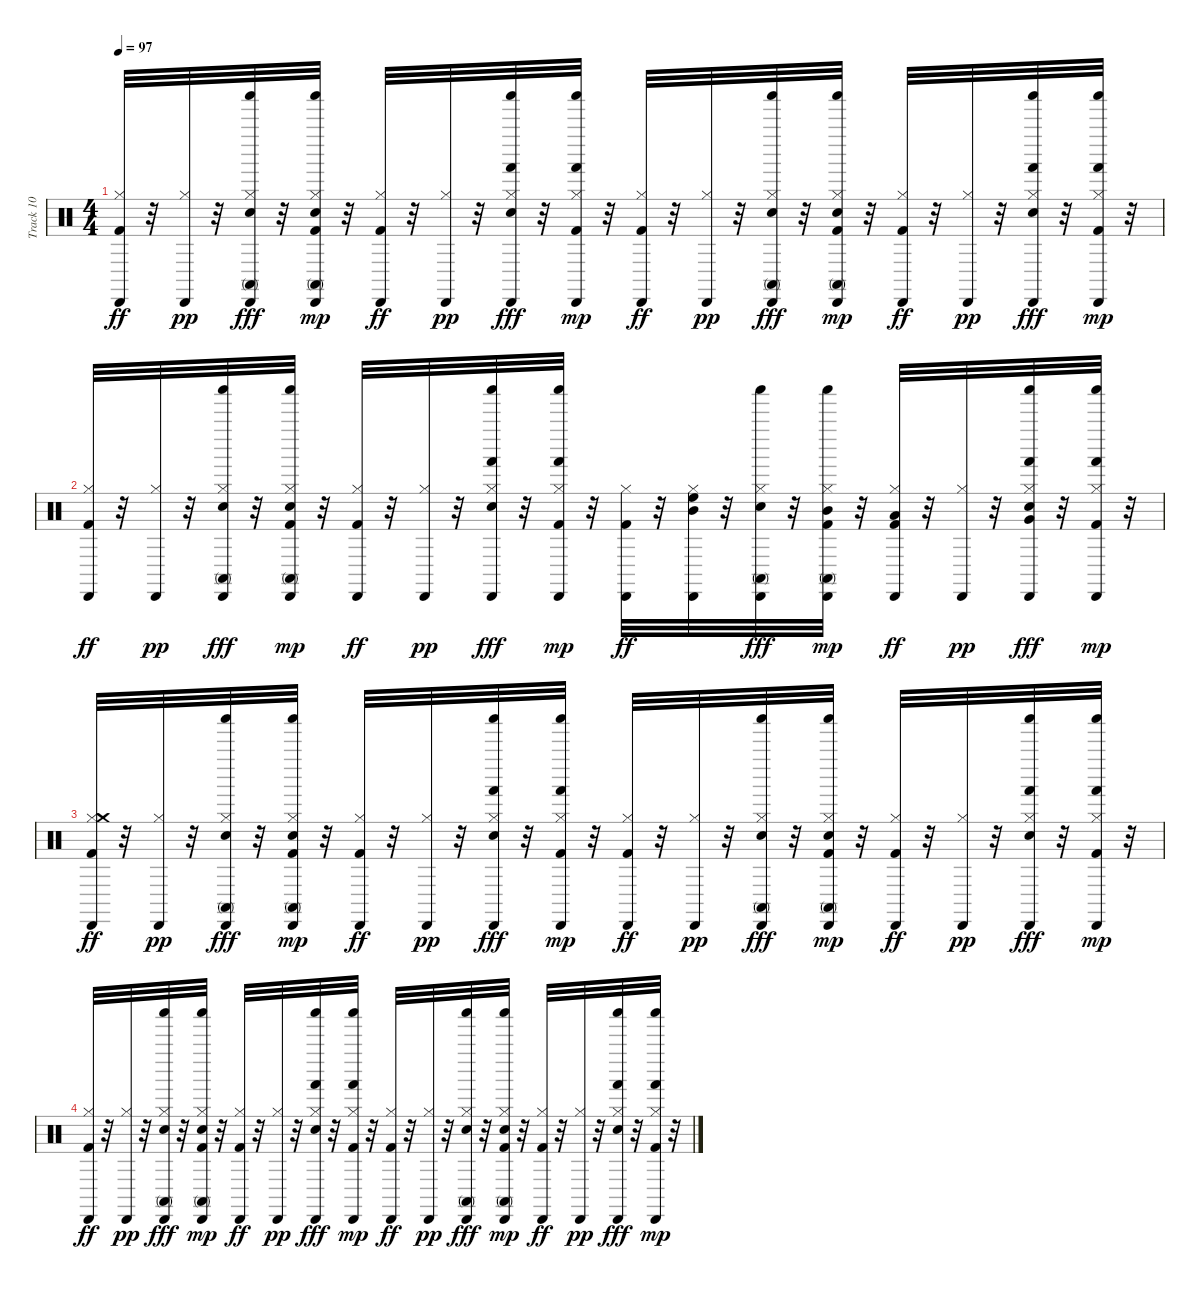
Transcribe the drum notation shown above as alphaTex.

\track ("Track 10" "Track 10") {instrument percussion}
\staff {score}
\articulation defaults
\ts (4 4)
\tempo 97
\clef neutral
\ks c
("Hi-Hat (closed)" "Cabasa (hit)" "Kick (hit) 2").32{dy ff} r.32 ("Hi-Hat (closed)" "Cabasa (hit)").32{dy pp} r.32 ("Hi-Hat (closed)" "Shaker (hit)" "Conga high (mute)" "Cabasa (hit)" "Snare (hit) 2").32{dy fff} r.32 ("Hi-Hat (closed)" "Shaker (hit)" "Conga high (mute)" "Cabasa (hit)" "Snare (hit) 2" "Kick (hit) 2").32{dy mp} r.32 ("Hi-Hat (closed)" "Cabasa (hit)" "Kick (hit) 2").32{dy ff} r.32 ("Hi-Hat (closed)" "Cabasa (hit)").32{dy pp} r.32 ("Hi-Hat (closed)" "Shaker (hit)" "Hand (hit)" "Cabasa (hit)" "Snare (hit) 2").32{dy fff} r.32 ("Hi-Hat (closed)" "Shaker (hit)" "Hand (hit)" "Cabasa (hit)" "Kick (hit) 2").32{dy mp} r.32 ("Hi-Hat (closed)" "Cabasa (hit)" "Kick (hit) 2").32{dy ff} r.32 ("Hi-Hat (closed)" "Cabasa (hit)").32{dy pp} r.32 ("Hi-Hat (closed)" "Shaker (hit)" "Conga high (mute)" "Cabasa (hit)" "Snare (hit) 2").32{dy fff} r.32 ("Hi-Hat (closed)" "Shaker (hit)" "Conga high (mute)" "Cabasa (hit)" "Snare (hit) 2" "Kick (hit) 2").32{dy mp} r.32 ("Hi-Hat (closed)" "Cabasa (hit)" "Kick (hit) 2").32{dy ff} r.32 ("Hi-Hat (closed)" "Cabasa (hit)").32{dy pp} r.32 ("Hi-Hat (closed)" "Shaker (hit)" "Hand (hit)" "Cabasa (hit)" "Snare (hit) 2").32{dy fff} r.32 ("Hi-Hat (closed)" "Shaker (hit)" "Hand (hit)" "Cabasa (hit)" "Kick (hit) 2").32{dy mp} r.32 |
("Hi-Hat (closed)" "Cabasa (hit)" "Kick (hit) 2").32{dy ff} r.32 ("Hi-Hat (closed)" "Cabasa (hit)").32{dy pp} r.32 ("Hi-Hat (closed)" "Shaker (hit)" "Conga high (mute)" "Cabasa (hit)" "Snare (hit) 2").32{dy fff} r.32 ("Hi-Hat (closed)" "Shaker (hit)" "Conga high (mute)" "Cabasa (hit)" "Snare (hit) 2" "Kick (hit) 2").32{dy mp} r.32 ("Hi-Hat (closed)" "Cabasa (hit)" "Kick (hit) 2").32{dy ff} r.32 ("Hi-Hat (closed)" "Cabasa (hit)").32{dy pp} r.32 ("Hi-Hat (closed)" "Shaker (hit)" "Hand (hit)" "Cabasa (hit)" "Snare (hit) 2").32{dy fff} r.32 ("Hi-Hat (closed)" "Shaker (hit)" "Hand (hit)" "Cabasa (hit)" "Kick (hit) 2").32{dy mp} r.32 ("Hi-Hat (closed)" "Cabasa (hit)" "Kick (hit) 2").32{dy ff} r.32 ("Hi-Hat (closed)" "Cabasa (hit)" "Mid Tom (hit)" "High Floor Tom (hit)").32 r.32 ("Hi-Hat (closed)" "Shaker (hit)" "Conga high (mute)" "Cabasa (hit)" "Snare (hit) 2").32{dy fff} r.32 ("Hi-Hat (closed)" "Shaker (hit)" "Conga high (mute)" "Cabasa (hit)" "Mid Tom (hit)" "Kick (hit) 2").32{dy mp} r.32 ("Hi-Hat (closed)" "Cabasa (hit)" "Low Tom (hit)" "Kick (hit) 2").32{dy ff} r.32 ("Hi-Hat (closed)" "Cabasa (hit)").32{dy pp} r.32 ("Hi-Hat (closed)" "Shaker (hit)" "Hand (hit)" "Cabasa (hit)" "Very Low Tom (hit)" "Snare (hit) 2").32{dy fff} r.32 ("Hi-Hat (closed)" "Shaker (hit)" "Hand (hit)" "Cabasa (hit)" "Kick (hit) 2").32{dy mp} r.32 |
("Hi-Hat (closed)" "Cabasa (hit)" "Crash medium (hit)" "Kick (hit) 2").32{dy ff} r.32 ("Hi-Hat (closed)" "Cabasa (hit)").32{dy pp} r.32 ("Hi-Hat (closed)" "Shaker (hit)" "Conga high (mute)" "Cabasa (hit)" "Snare (hit) 2").32{dy fff} r.32 ("Hi-Hat (closed)" "Shaker (hit)" "Conga high (mute)" "Cabasa (hit)" "Kick (hit) 2" "Snare (hit) 2").32{dy mp} r.32 ("Hi-Hat (closed)" "Cabasa (hit)" "Kick (hit) 2").32{dy ff} r.32 ("Hi-Hat (closed)" "Cabasa (hit)").32{dy pp} r.32 ("Hi-Hat (closed)" "Shaker (hit)" "Hand (hit)" "Cabasa (hit)" "Snare (hit) 2").32{dy fff} r.32 ("Hi-Hat (closed)" "Shaker (hit)" "Hand (hit)" "Cabasa (hit)" "Kick (hit) 2").32{dy mp} r.32 ("Hi-Hat (closed)" "Cabasa (hit)" "Kick (hit) 2").32{dy ff} r.32 ("Hi-Hat (closed)" "Cabasa (hit)").32{dy pp} r.32 ("Hi-Hat (closed)" "Shaker (hit)" "Conga high (mute)" "Cabasa (hit)" "Snare (hit) 2").32{dy fff} r.32 ("Hi-Hat (closed)" "Shaker (hit)" "Conga high (mute)" "Cabasa (hit)" "Kick (hit) 2" "Snare (hit) 2").32{dy mp} r.32 ("Hi-Hat (closed)" "Cabasa (hit)" "Kick (hit) 2").32{dy ff} r.32 ("Hi-Hat (closed)" "Cabasa (hit)").32{dy pp} r.32 ("Hi-Hat (closed)" "Shaker (hit)" "Hand (hit)" "Cabasa (hit)" "Snare (hit) 2").32{dy fff} r.32 ("Hi-Hat (closed)" "Shaker (hit)" "Hand (hit)" "Cabasa (hit)" "Kick (hit) 2").32{dy mp} r.32 |
("Hi-Hat (closed)" "Cabasa (hit)" "Kick (hit) 2").32{dy ff} r.32 ("Hi-Hat (closed)" "Cabasa (hit)").32{dy pp} r.32 ("Hi-Hat (closed)" "Shaker (hit)" "Conga high (mute)" "Cabasa (hit)" "Snare (hit) 2").32{dy fff} r.32 ("Hi-Hat (closed)" "Shaker (hit)" "Conga high (mute)" "Cabasa (hit)" "Snare (hit) 2" "Kick (hit) 2").32{dy mp} r.32 ("Hi-Hat (closed)" "Cabasa (hit)" "Kick (hit) 2").32{dy ff} r.32 ("Hi-Hat (closed)" "Cabasa (hit)").32{dy pp} r.32 ("Hi-Hat (closed)" "Shaker (hit)" "Hand (hit)" "Cabasa (hit)" "Snare (hit) 2").32{dy fff} r.32 ("Hi-Hat (closed)" "Shaker (hit)" "Hand (hit)" "Cabasa (hit)" "Kick (hit) 2").32{dy mp} r.32 ("Hi-Hat (closed)" "Cabasa (hit)" "Kick (hit) 2").32{dy ff} r.32 ("Hi-Hat (closed)" "Cabasa (hit)").32{dy pp} r.32 ("Hi-Hat (closed)" "Shaker (hit)" "Conga high (mute)" "Cabasa (hit)" "Snare (hit) 2").32{dy fff} r.32 ("Hi-Hat (closed)" "Shaker (hit)" "Conga high (mute)" "Cabasa (hit)" "Snare (hit) 2" "Kick (hit) 2").32{dy mp} r.32 ("Hi-Hat (closed)" "Cabasa (hit)" "Kick (hit) 2").32{dy ff} r.32 ("Hi-Hat (closed)" "Cabasa (hit)").32{dy pp} r.32 ("Hi-Hat (closed)" "Shaker (hit)" "Hand (hit)" "Cabasa (hit)" "Snare (hit) 2").32{dy fff} r.32 ("Hi-Hat (closed)" "Shaker (hit)" "Hand (hit)" "Cabasa (hit)" "Kick (hit) 2").32{dy mp} r.32
